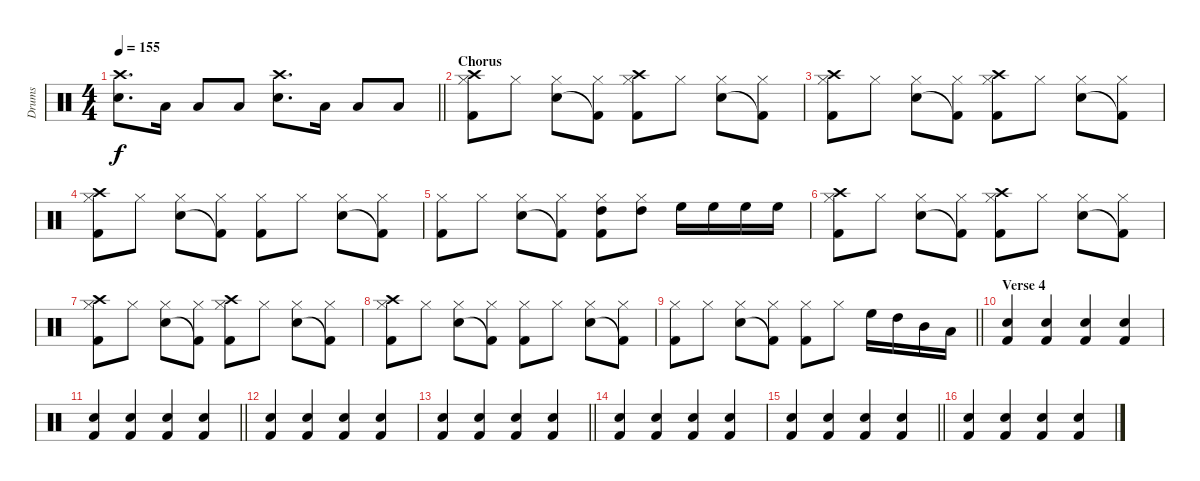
\track ("Drums" "Drums") {instrument percussion}
\staff {score}
\articulation defaults
\ts (4 4)
\tempo 155
\clef neutral
\barLineRight lightlight
\ks c
("Crash high (hit)" "Snare (hit) 2").8{d dy f} "Low Tom (hit)".16 "Low Tom (hit)".8 "Low Tom (hit)".8 ("Crash high (hit)" "Snare (hit) 2").8{d} "Low Tom (hit)".16 "Low Tom (hit)".8 "Low Tom (hit)".8 |
\section ("" "Chorus")
("Crash high (hit)" "Kick (hit) 2" "Hi-Hat (closed)").8 "Hi-Hat (closed)".8 ("Snare (hit) 2" "Hi-Hat (closed)").8 ("Kick (hit) 2"{t} "Hi-Hat (closed)").8 ("Crash high (hit)" "Kick (hit) 2" "Hi-Hat (closed)").8 "Hi-Hat (closed)".8 ("Snare (hit) 2" "Hi-Hat (closed)").8 ("Kick (hit) 2"{t} "Hi-Hat (closed)").8 |
("Crash high (hit)" "Kick (hit) 2" "Hi-Hat (closed)").8 "Hi-Hat (closed)".8 ("Snare (hit) 2" "Hi-Hat (closed)").8 ("Kick (hit) 2"{t} "Hi-Hat (closed)").8 ("Crash high (hit)" "Kick (hit) 2" "Hi-Hat (closed)").8 "Hi-Hat (closed)".8 ("Snare (hit) 2" "Hi-Hat (closed)").8 ("Kick (hit) 2"{t} "Hi-Hat (closed)").8 |
("Crash high (hit)" "Kick (hit) 2" "Hi-Hat (closed)").8 "Hi-Hat (closed)".8 ("Snare (hit) 2" "Hi-Hat (closed)").8 ("Kick (hit) 2"{t} "Hi-Hat (closed)").8 ("Kick (hit) 2" "Hi-Hat (closed)").8 "Hi-Hat (closed)".8 ("Snare (hit) 2" "Hi-Hat (closed)").8 ("Kick (hit) 2"{t} "Hi-Hat (closed)").8 |
("Kick (hit) 2" "Hi-Hat (closed)").8 "Hi-Hat (closed)".8 ("Snare (hit) 2" "Hi-Hat (closed)").8 ("Kick (hit) 2"{t} "Hi-Hat (closed)").8 ("Kick (hit) 2" "Hi-Hat (closed)" "High Tom (hit)").8 ("Hi-Hat (closed)" "High Tom (hit)").8 "High Floor Tom (hit)".16 "High Floor Tom (hit)".16 "High Floor Tom (hit)".16 "High Floor Tom (hit)".16 |
("Crash high (hit)" "Kick (hit) 2" "Hi-Hat (closed)").8 "Hi-Hat (closed)".8 ("Snare (hit) 2" "Hi-Hat (closed)").8 ("Kick (hit) 2"{t} "Hi-Hat (closed)").8 ("Crash high (hit)" "Kick (hit) 2" "Hi-Hat (closed)").8 "Hi-Hat (closed)".8 ("Snare (hit) 2" "Hi-Hat (closed)").8 ("Kick (hit) 2"{t} "Hi-Hat (closed)").8 |
("Crash high (hit)" "Kick (hit) 2" "Hi-Hat (closed)").8 "Hi-Hat (closed)".8 ("Snare (hit) 2" "Hi-Hat (closed)").8 ("Kick (hit) 2"{t} "Hi-Hat (closed)").8 ("Crash high (hit)" "Kick (hit) 2" "Hi-Hat (closed)").8 "Hi-Hat (closed)".8 ("Snare (hit) 2" "Hi-Hat (closed)").8 ("Kick (hit) 2"{t} "Hi-Hat (closed)").8 |
("Crash high (hit)" "Kick (hit) 2" "Hi-Hat (closed)").8 "Hi-Hat (closed)".8 ("Snare (hit) 2" "Hi-Hat (closed)").8 ("Kick (hit) 2"{t} "Hi-Hat (closed)").8 ("Kick (hit) 2" "Hi-Hat (closed)").8 "Hi-Hat (closed)".8 ("Snare (hit) 2" "Hi-Hat (closed)").8 ("Kick (hit) 2"{t} "Hi-Hat (closed)").8 |
\barLineRight lightlight
("Kick (hit) 2" "Hi-Hat (closed)").8 "Hi-Hat (closed)".8 ("Snare (hit) 2" "Hi-Hat (closed)").8 ("Kick (hit) 2"{t} "Hi-Hat (closed)").8 ("Kick (hit) 2" "Hi-Hat (closed)").8 "Hi-Hat (closed)".8 "High Floor Tom (hit)".16 "High Tom (hit)".16 "Mid Tom (hit)".16 "Low Tom (hit)".16 |
\section ("" "Verse 4")
("Electric Snare (hit)" "Kick (hit) 2").4 ("Electric Snare (hit)" "Kick (hit) 2").4 ("Electric Snare (hit)" "Kick (hit) 2").4 ("Electric Snare (hit)" "Kick (hit) 2").4 |
\barLineRight lightlight
("Electric Snare (hit)" "Kick (hit) 2").4 ("Electric Snare (hit)" "Kick (hit) 2").4 ("Electric Snare (hit)" "Kick (hit) 2").4 ("Electric Snare (hit)" "Kick (hit) 2").4 |
("Electric Snare (hit)" "Kick (hit) 2").4 ("Electric Snare (hit)" "Kick (hit) 2").4 ("Electric Snare (hit)" "Kick (hit) 2").4 ("Electric Snare (hit)" "Kick (hit) 2").4 |
\barLineRight lightlight
("Electric Snare (hit)" "Kick (hit) 2").4 ("Electric Snare (hit)" "Kick (hit) 2").4 ("Electric Snare (hit)" "Kick (hit) 2").4 ("Electric Snare (hit)" "Kick (hit) 2").4 |
("Electric Snare (hit)" "Kick (hit) 2").4 ("Electric Snare (hit)" "Kick (hit) 2").4 ("Electric Snare (hit)" "Kick (hit) 2").4 ("Electric Snare (hit)" "Kick (hit) 2").4 |
\barLineRight lightlight
("Electric Snare (hit)" "Kick (hit) 2").4 ("Electric Snare (hit)" "Kick (hit) 2").4 ("Electric Snare (hit)" "Kick (hit) 2").4 ("Electric Snare (hit)" "Kick (hit) 2").4 |
("Electric Snare (hit)" "Kick (hit) 2").4 ("Electric Snare (hit)" "Kick (hit) 2").4 ("Electric Snare (hit)" "Kick (hit) 2").4 ("Electric Snare (hit)" "Kick (hit) 2").4
